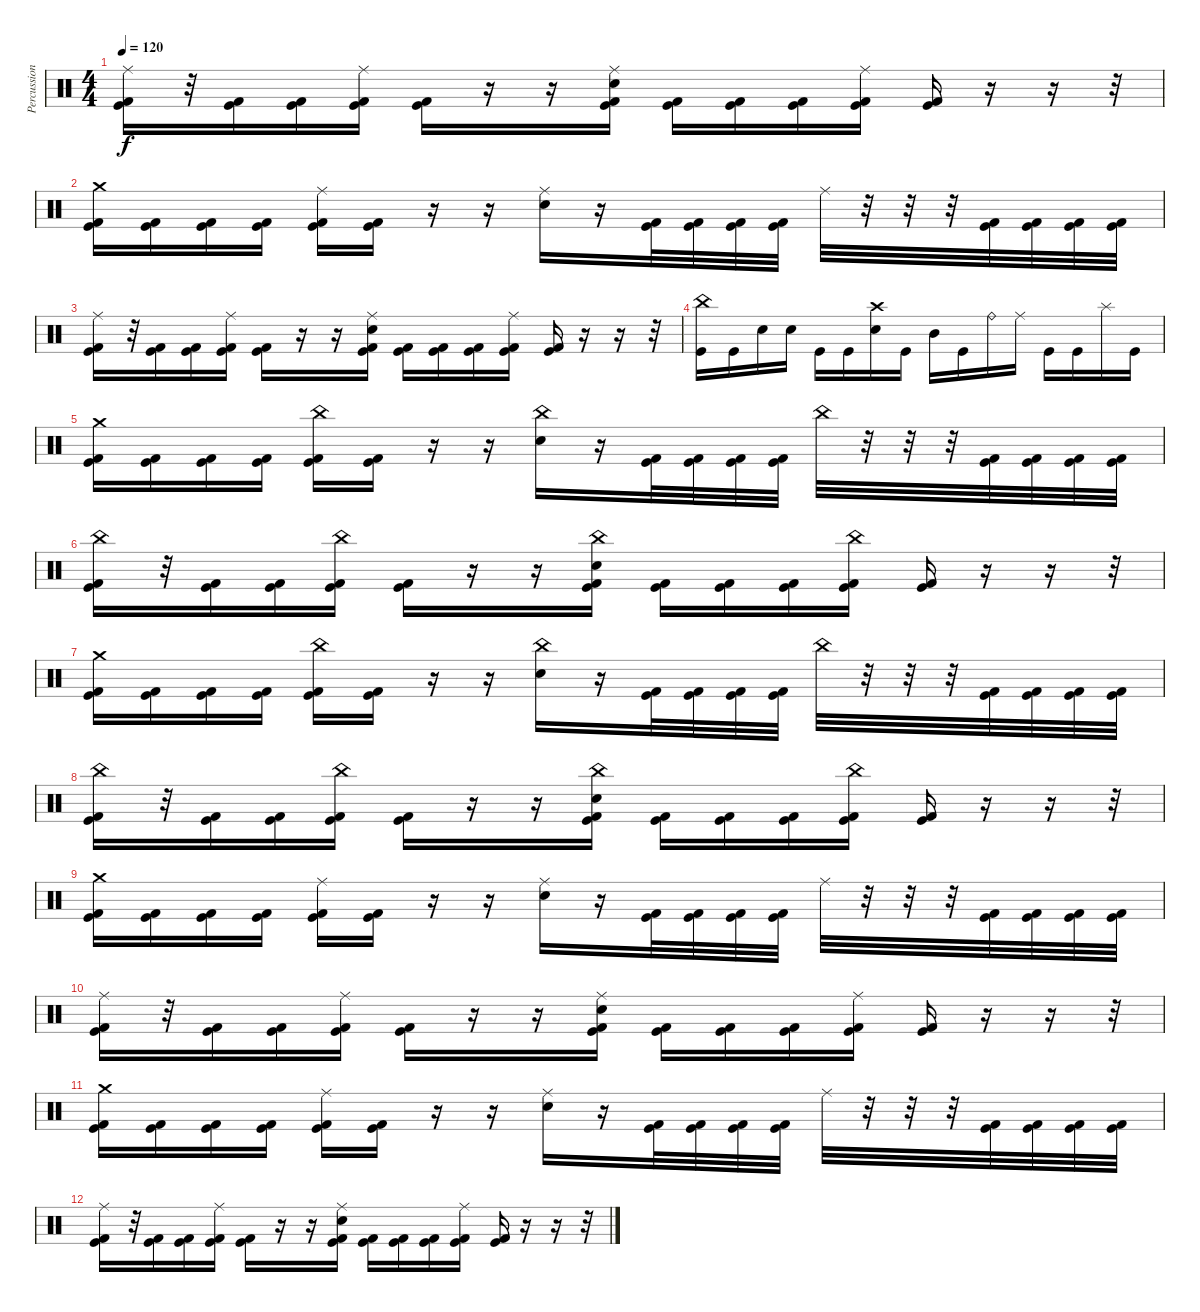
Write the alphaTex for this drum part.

\track ("Percussion" "Percussion") {instrument percussion}
\staff {score}
\articulation defaults
\ts (4 4)
\tempo 120
\clef neutral
\ks c
("Ride (middle)" "Kick (hit)" "Kick (hit) 2").16{dy f} r.32 ("Kick (hit)" "Kick (hit) 2").16 ("Kick (hit)" "Kick (hit) 2").16 ("Ride (middle)" "Kick (hit)" "Kick (hit) 2").16 ("Kick (hit)" "Kick (hit) 2").16 r.16 r.16 ("Ride (middle)" "Electric Snare (hit)" "Kick (hit)" "Kick (hit) 2").16 ("Kick (hit)" "Kick (hit) 2").16 ("Kick (hit)" "Kick (hit) 2").16 ("Kick (hit)" "Kick (hit) 2").16 ("Ride (middle)" "Kick (hit)" "Kick (hit) 2").16 ("Kick (hit)" "Kick (hit) 2").16 r.16 r.16 r.32 |
("Crash medium (hit)" "Kick (hit)" "Kick (hit) 2").16 ("Kick (hit)" "Kick (hit) 2").16 ("Kick (hit)" "Kick (hit) 2").16 ("Kick (hit)" "Kick (hit) 2").16 ("Ride (middle)" "Kick (hit)" "Kick (hit) 2").16 ("Kick (hit)" "Kick (hit) 2").16 r.16 r.16 ("Ride (middle)" "Electric Snare (hit)").16 r.16 ("Kick (hit)" "Kick (hit) 2").32 ("Kick (hit)" "Kick (hit) 2").32 ("Kick (hit)" "Kick (hit) 2").32 ("Kick (hit)" "Kick (hit) 2").32 "Ride (middle)".32 r.32 r.32 r.32 ("Kick (hit)" "Kick (hit) 2").32 ("Kick (hit)" "Kick (hit) 2").32 ("Kick (hit)" "Kick (hit) 2").32 ("Kick (hit)" "Kick (hit) 2").32 |
("Ride (middle)" "Kick (hit)" "Kick (hit) 2").16 r.32 ("Kick (hit)" "Kick (hit) 2").16 ("Kick (hit)" "Kick (hit) 2").16 ("Ride (middle)" "Kick (hit)" "Kick (hit) 2").16 ("Kick (hit)" "Kick (hit) 2").16 r.16 r.16 ("Ride (middle)" "Electric Snare (hit)" "Kick (hit)" "Kick (hit) 2").16 ("Kick (hit)" "Kick (hit) 2").16 ("Kick (hit)" "Kick (hit) 2").16 ("Kick (hit)" "Kick (hit) 2").16 ("Ride (middle)" "Kick (hit)" "Kick (hit) 2").16 ("Kick (hit)" "Kick (hit) 2").16 r.16 r.16 r.32 |
("China (hit)" "Kick (hit)").16 "Kick (hit)".16 "Electric Snare (hit)".16 "Electric Snare (hit)".16 "Kick (hit)".16 "Kick (hit)".16 ("Crash high (hit)" "Electric Snare (hit)").16 "Kick (hit)".16 "Mid Tom (hit)".16 "Kick (hit)".16 "Ride (bell)".16 "Ride (middle)".16 "Kick (hit)".16 "Kick (hit)".16 "Splash (hit)".16 "Kick (hit)".16 |
("Crash medium (hit)" "Kick (hit)" "Kick (hit) 2").16 ("Kick (hit)" "Kick (hit) 2").16 ("Kick (hit)" "Kick (hit) 2").16 ("Kick (hit)" "Kick (hit) 2").16 ("China (hit)" "Kick (hit)" "Kick (hit) 2").16 ("Kick (hit)" "Kick (hit) 2").16 r.16 r.16 ("China (hit)" "Electric Snare (hit)").16 r.16 ("Kick (hit)" "Kick (hit) 2").32 ("Kick (hit)" "Kick (hit) 2").32 ("Kick (hit)" "Kick (hit) 2").32 ("Kick (hit)" "Kick (hit) 2").32 "China (hit)".32 r.32 r.32 r.32 ("Kick (hit)" "Kick (hit) 2").32 ("Kick (hit)" "Kick (hit) 2").32 ("Kick (hit)" "Kick (hit) 2").32 ("Kick (hit)" "Kick (hit) 2").32 |
("China (hit)" "Kick (hit)" "Kick (hit) 2").16 r.32 ("Kick (hit)" "Kick (hit) 2").16 ("Kick (hit)" "Kick (hit) 2").16 ("China (hit)" "Kick (hit)" "Kick (hit) 2").16 ("Kick (hit)" "Kick (hit) 2").16 r.16 r.16 ("China (hit)" "Electric Snare (hit)" "Kick (hit)" "Kick (hit) 2").16 ("Kick (hit)" "Kick (hit) 2").16 ("Kick (hit)" "Kick (hit) 2").16 ("Kick (hit)" "Kick (hit) 2").16 ("China (hit)" "Kick (hit)" "Kick (hit) 2").16 ("Kick (hit)" "Kick (hit) 2").16 r.16 r.16 r.32 |
("Crash medium (hit)" "Kick (hit)" "Kick (hit) 2").16 ("Kick (hit)" "Kick (hit) 2").16 ("Kick (hit)" "Kick (hit) 2").16 ("Kick (hit)" "Kick (hit) 2").16 ("China (hit)" "Kick (hit)" "Kick (hit) 2").16 ("Kick (hit)" "Kick (hit) 2").16 r.16 r.16 ("China (hit)" "Electric Snare (hit)").16 r.16 ("Kick (hit)" "Kick (hit) 2").32 ("Kick (hit)" "Kick (hit) 2").32 ("Kick (hit)" "Kick (hit) 2").32 ("Kick (hit)" "Kick (hit) 2").32 "China (hit)".32 r.32 r.32 r.32 ("Kick (hit)" "Kick (hit) 2").32 ("Kick (hit)" "Kick (hit) 2").32 ("Kick (hit)" "Kick (hit) 2").32 ("Kick (hit)" "Kick (hit) 2").32 |
("China (hit)" "Kick (hit)" "Kick (hit) 2").16 r.32 ("Kick (hit)" "Kick (hit) 2").16 ("Kick (hit)" "Kick (hit) 2").16 ("China (hit)" "Kick (hit)" "Kick (hit) 2").16 ("Kick (hit)" "Kick (hit) 2").16 r.16 r.16 ("China (hit)" "Electric Snare (hit)" "Kick (hit)" "Kick (hit) 2").16 ("Kick (hit)" "Kick (hit) 2").16 ("Kick (hit)" "Kick (hit) 2").16 ("Kick (hit)" "Kick (hit) 2").16 ("China (hit)" "Kick (hit)" "Kick (hit) 2").16 ("Kick (hit)" "Kick (hit) 2").16 r.16 r.16 r.32 |
("Crash medium (hit)" "Kick (hit)" "Kick (hit) 2").16 ("Kick (hit)" "Kick (hit) 2").16 ("Kick (hit)" "Kick (hit) 2").16 ("Kick (hit)" "Kick (hit) 2").16 ("Ride (middle)" "Kick (hit)" "Kick (hit) 2").16 ("Kick (hit)" "Kick (hit) 2").16 r.16 r.16 ("Ride (middle)" "Electric Snare (hit)").16 r.16 ("Kick (hit)" "Kick (hit) 2").32 ("Kick (hit)" "Kick (hit) 2").32 ("Kick (hit)" "Kick (hit) 2").32 ("Kick (hit)" "Kick (hit) 2").32 "Ride (middle)".32 r.32 r.32 r.32 ("Kick (hit)" "Kick (hit) 2").32 ("Kick (hit)" "Kick (hit) 2").32 ("Kick (hit)" "Kick (hit) 2").32 ("Kick (hit)" "Kick (hit) 2").32 |
("Ride (middle)" "Kick (hit)" "Kick (hit) 2").16 r.32 ("Kick (hit)" "Kick (hit) 2").16 ("Kick (hit)" "Kick (hit) 2").16 ("Ride (middle)" "Kick (hit)" "Kick (hit) 2").16 ("Kick (hit)" "Kick (hit) 2").16 r.16 r.16 ("Ride (middle)" "Electric Snare (hit)" "Kick (hit)" "Kick (hit) 2").16 ("Kick (hit)" "Kick (hit) 2").16 ("Kick (hit)" "Kick (hit) 2").16 ("Kick (hit)" "Kick (hit) 2").16 ("Ride (middle)" "Kick (hit)" "Kick (hit) 2").16 ("Kick (hit)" "Kick (hit) 2").16 r.16 r.16 r.32 |
("Crash medium (hit)" "Kick (hit)" "Kick (hit) 2").16 ("Kick (hit)" "Kick (hit) 2").16 ("Kick (hit)" "Kick (hit) 2").16 ("Kick (hit)" "Kick (hit) 2").16 ("Ride (middle)" "Kick (hit)" "Kick (hit) 2").16 ("Kick (hit)" "Kick (hit) 2").16 r.16 r.16 ("Ride (middle)" "Electric Snare (hit)").16 r.16 ("Kick (hit)" "Kick (hit) 2").32 ("Kick (hit)" "Kick (hit) 2").32 ("Kick (hit)" "Kick (hit) 2").32 ("Kick (hit)" "Kick (hit) 2").32 "Ride (middle)".32 r.32 r.32 r.32 ("Kick (hit)" "Kick (hit) 2").32 ("Kick (hit)" "Kick (hit) 2").32 ("Kick (hit)" "Kick (hit) 2").32 ("Kick (hit)" "Kick (hit) 2").32 |
("Ride (middle)" "Kick (hit)" "Kick (hit) 2").16 r.32 ("Kick (hit)" "Kick (hit) 2").16 ("Kick (hit)" "Kick (hit) 2").16 ("Ride (middle)" "Kick (hit)" "Kick (hit) 2").16 ("Kick (hit)" "Kick (hit) 2").16 r.16 r.16 ("Ride (middle)" "Electric Snare (hit)" "Kick (hit)" "Kick (hit) 2").16 ("Kick (hit)" "Kick (hit) 2").16 ("Kick (hit)" "Kick (hit) 2").16 ("Kick (hit)" "Kick (hit) 2").16 ("Ride (middle)" "Kick (hit)" "Kick (hit) 2").16 ("Kick (hit)" "Kick (hit) 2").16 r.16 r.16 r.32
